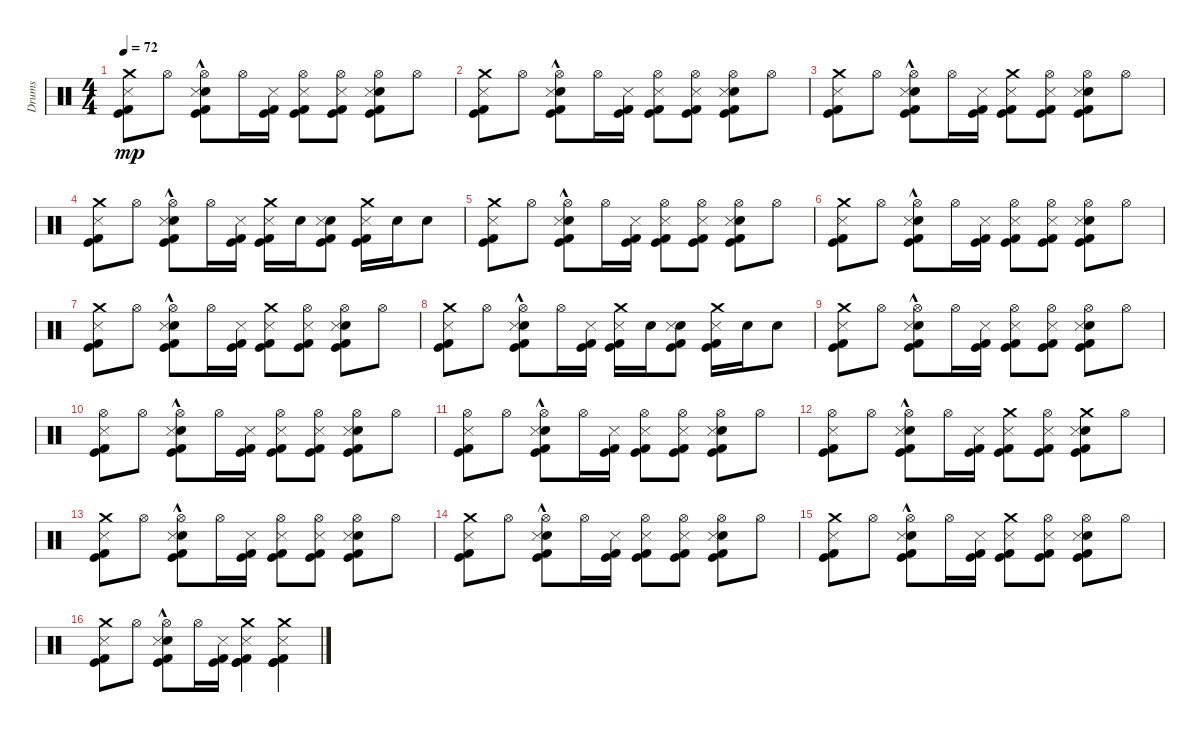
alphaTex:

\track ("Drums" "Drums") {instrument percussion}
\staff {score}
\articulation defaults
\ts (4 4)
\tempo 72
\clef neutral
\ks c
("Crash medium (hit)" "Metronome (hit)" "Kick (hit)" "Kick (hit) 2").8{dy mp} "Hi-Hat (open)".8 ("Snare (hit) 2" "Hi-Hat (open)" "Metronome (hit)"{hac} "Kick (hit)"{hac} "Kick (hit) 2"{hac}).8 "Hi-Hat (open)".16 ("Metronome (hit)" "Kick (hit)" "Kick (hit) 2").16 ("Hi-Hat (open)" "Metronome (hit)" "Kick (hit)" "Kick (hit) 2").8 ("Hi-Hat (open)" "Metronome (hit)" "Kick (hit)" "Kick (hit) 2").8 ("Snare (hit) 2" "Hi-Hat (open)" "Metronome (hit)" "Kick (hit)" "Kick (hit) 2").8 "Hi-Hat (open)".8 |
("Crash medium (hit)" "Metronome (hit)" "Kick (hit)" "Kick (hit) 2").8 "Hi-Hat (open)".8 ("Snare (hit) 2" "Hi-Hat (open)" "Metronome (hit)"{hac} "Kick (hit)"{hac} "Kick (hit) 2"{hac}).8 "Hi-Hat (open)".16 ("Metronome (hit)" "Kick (hit)" "Kick (hit) 2").16 ("Hi-Hat (open)" "Metronome (hit)" "Kick (hit)" "Kick (hit) 2").8 ("Hi-Hat (open)" "Metronome (hit)" "Kick (hit)" "Kick (hit) 2").8 ("Snare (hit) 2" "Hi-Hat (open)" "Metronome (hit)" "Kick (hit)" "Kick (hit) 2").8 "Hi-Hat (open)".8 |
("Crash medium (hit)" "Metronome (hit)" "Kick (hit)" "Kick (hit) 2").8 "Hi-Hat (open)".8 ("Snare (hit) 2" "Hi-Hat (open)" "Metronome (hit)"{hac} "Kick (hit)"{hac} "Kick (hit) 2"{hac}).8 "Hi-Hat (open)".16 ("Metronome (hit)" "Kick (hit)" "Kick (hit) 2").16 ("Crash medium (hit)" "Metronome (hit)" "Kick (hit)" "Kick (hit) 2").8 ("Hi-Hat (open)" "Metronome (hit)" "Kick (hit)" "Kick (hit) 2").8 ("Snare (hit) 2" "Hi-Hat (open)" "Metronome (hit)" "Kick (hit)" "Kick (hit) 2").8 "Hi-Hat (open)".8 |
("Crash medium (hit)" "Metronome (hit)" "Kick (hit)" "Kick (hit) 2").8 "Hi-Hat (open)".8 ("Snare (hit) 2" "Hi-Hat (open)" "Metronome (hit)"{hac} "Kick (hit)"{hac} "Kick (hit) 2"{hac}).8 "Hi-Hat (open)".16 ("Metronome (hit)" "Kick (hit)" "Kick (hit) 2").16 ("Crash medium (hit)" "Metronome (hit)" "Kick (hit)" "Kick (hit) 2").16 "Snare (hit) 2".16 ("Snare (hit) 2" "Metronome (hit)" "Kick (hit)" "Kick (hit) 2").8 ("Crash medium (hit)" "Metronome (hit)" "Kick (hit)" "Kick (hit) 2").16 "Snare (hit) 2".16 "Snare (hit) 2".8 |
("Crash medium (hit)" "Metronome (hit)" "Kick (hit)" "Kick (hit) 2").8 "Hi-Hat (open)".8 ("Snare (hit) 2" "Hi-Hat (open)" "Metronome (hit)"{hac} "Kick (hit)"{hac} "Kick (hit) 2"{hac}).8 "Hi-Hat (open)".16 ("Metronome (hit)" "Kick (hit)" "Kick (hit) 2").16 ("Hi-Hat (open)" "Metronome (hit)" "Kick (hit)" "Kick (hit) 2").8 ("Hi-Hat (open)" "Metronome (hit)" "Kick (hit)" "Kick (hit) 2").8 ("Snare (hit) 2" "Hi-Hat (open)" "Metronome (hit)" "Kick (hit)" "Kick (hit) 2").8 "Hi-Hat (open)".8 |
("Crash medium (hit)" "Metronome (hit)" "Kick (hit)" "Kick (hit) 2").8 "Hi-Hat (open)".8 ("Snare (hit) 2" "Hi-Hat (open)" "Metronome (hit)"{hac} "Kick (hit)"{hac} "Kick (hit) 2"{hac}).8 "Hi-Hat (open)".16 ("Metronome (hit)" "Kick (hit)" "Kick (hit) 2").16 ("Hi-Hat (open)" "Metronome (hit)" "Kick (hit)" "Kick (hit) 2").8 ("Hi-Hat (open)" "Metronome (hit)" "Kick (hit)" "Kick (hit) 2").8 ("Snare (hit) 2" "Hi-Hat (open)" "Metronome (hit)" "Kick (hit)" "Kick (hit) 2").8 "Hi-Hat (open)".8 |
("Crash medium (hit)" "Metronome (hit)" "Kick (hit)" "Kick (hit) 2").8 "Hi-Hat (open)".8 ("Snare (hit) 2" "Hi-Hat (open)" "Metronome (hit)"{hac} "Kick (hit)"{hac} "Kick (hit) 2"{hac}).8 "Hi-Hat (open)".16 ("Metronome (hit)" "Kick (hit)" "Kick (hit) 2").16 ("Crash medium (hit)" "Metronome (hit)" "Kick (hit)" "Kick (hit) 2").8 ("Hi-Hat (open)" "Metronome (hit)" "Kick (hit)" "Kick (hit) 2").8 ("Snare (hit) 2" "Hi-Hat (open)" "Metronome (hit)" "Kick (hit)" "Kick (hit) 2").8 "Hi-Hat (open)".8 |
("Crash medium (hit)" "Metronome (hit)" "Kick (hit)" "Kick (hit) 2").8 "Hi-Hat (open)".8 ("Snare (hit) 2" "Hi-Hat (open)" "Metronome (hit)"{hac} "Kick (hit)"{hac} "Kick (hit) 2"{hac}).8 "Hi-Hat (open)".16 ("Metronome (hit)" "Kick (hit)" "Kick (hit) 2").16 ("Crash medium (hit)" "Metronome (hit)" "Kick (hit)" "Kick (hit) 2").16 "Snare (hit) 2".16 ("Snare (hit) 2" "Metronome (hit)" "Kick (hit)" "Kick (hit) 2").8 ("Crash medium (hit)" "Metronome (hit)" "Kick (hit)" "Kick (hit) 2").16 "Snare (hit) 2".16 "Snare (hit) 2".8 |
("Crash medium (hit)" "Metronome (hit)" "Kick (hit)" "Kick (hit) 2").8 "Hi-Hat (open)".8 ("Snare (hit) 2" "Hi-Hat (open)" "Metronome (hit)"{hac} "Kick (hit)"{hac} "Kick (hit) 2"{hac}).8 "Hi-Hat (open)".16 ("Metronome (hit)" "Kick (hit)" "Kick (hit) 2").16 ("Hi-Hat (open)" "Metronome (hit)" "Kick (hit)" "Kick (hit) 2").8 ("Hi-Hat (open)" "Metronome (hit)" "Kick (hit)" "Kick (hit) 2").8 ("Snare (hit) 2" "Hi-Hat (open)" "Metronome (hit)" "Kick (hit)" "Kick (hit) 2").8 "Hi-Hat (open)".8 |
("Hi-Hat (open)" "Metronome (hit)" "Kick (hit)" "Kick (hit) 2").8 "Hi-Hat (open)".8 ("Snare (hit) 2" "Hi-Hat (open)" "Metronome (hit)"{hac} "Kick (hit)"{hac} "Kick (hit) 2"{hac}).8 "Hi-Hat (open)".16 ("Metronome (hit)" "Kick (hit)" "Kick (hit) 2").16 ("Hi-Hat (open)" "Metronome (hit)" "Kick (hit)" "Kick (hit) 2").8 ("Hi-Hat (open)" "Metronome (hit)" "Kick (hit)" "Kick (hit) 2").8 ("Snare (hit) 2" "Hi-Hat (open)" "Metronome (hit)" "Kick (hit)" "Kick (hit) 2").8 "Hi-Hat (open)".8 |
("Hi-Hat (open)" "Metronome (hit)" "Kick (hit)" "Kick (hit) 2").8 "Hi-Hat (open)".8 ("Snare (hit) 2" "Hi-Hat (open)" "Metronome (hit)"{hac} "Kick (hit)"{hac} "Kick (hit) 2"{hac}).8 "Hi-Hat (open)".16 ("Metronome (hit)" "Kick (hit)" "Kick (hit) 2").16 ("Hi-Hat (open)" "Metronome (hit)" "Kick (hit)" "Kick (hit) 2").8 ("Hi-Hat (open)" "Metronome (hit)" "Kick (hit)" "Kick (hit) 2").8 ("Snare (hit) 2" "Hi-Hat (open)" "Metronome (hit)" "Kick (hit)" "Kick (hit) 2").8 "Hi-Hat (open)".8 |
("Hi-Hat (open)" "Metronome (hit)" "Kick (hit)" "Kick (hit) 2").8 "Hi-Hat (open)".8 ("Snare (hit) 2" "Hi-Hat (open)" "Metronome (hit)"{hac} "Kick (hit)"{hac} "Kick (hit) 2"{hac}).8 "Hi-Hat (open)".16 ("Metronome (hit)" "Kick (hit)" "Kick (hit) 2").16 ("Crash medium (hit)" "Metronome (hit)" "Kick (hit)" "Kick (hit) 2").8 ("Hi-Hat (open)" "Metronome (hit)" "Kick (hit)" "Kick (hit) 2").8 ("Snare (hit) 2" "Crash medium (hit)" "Metronome (hit)" "Kick (hit)" "Kick (hit) 2").8 "Hi-Hat (open)".8 |
("Crash medium (hit)" "Metronome (hit)" "Kick (hit)" "Kick (hit) 2").8 "Hi-Hat (open)".8 ("Snare (hit) 2" "Hi-Hat (open)" "Metronome (hit)"{hac} "Kick (hit)"{hac} "Kick (hit) 2"{hac}).8 "Hi-Hat (open)".16 ("Metronome (hit)" "Kick (hit)" "Kick (hit) 2").16 ("Hi-Hat (open)" "Metronome (hit)" "Kick (hit)" "Kick (hit) 2").8 ("Hi-Hat (open)" "Metronome (hit)" "Kick (hit)" "Kick (hit) 2").8 ("Snare (hit) 2" "Hi-Hat (open)" "Metronome (hit)" "Kick (hit)" "Kick (hit) 2").8 "Hi-Hat (open)".8 |
("Crash medium (hit)" "Metronome (hit)" "Kick (hit)" "Kick (hit) 2").8 "Hi-Hat (open)".8 ("Snare (hit) 2" "Hi-Hat (open)" "Metronome (hit)"{hac} "Kick (hit)"{hac} "Kick (hit) 2"{hac}).8 "Hi-Hat (open)".16 ("Metronome (hit)" "Kick (hit)" "Kick (hit) 2").16 ("Hi-Hat (open)" "Metronome (hit)" "Kick (hit)" "Kick (hit) 2").8 ("Hi-Hat (open)" "Metronome (hit)" "Kick (hit)" "Kick (hit) 2").8 ("Snare (hit) 2" "Hi-Hat (open)" "Metronome (hit)" "Kick (hit)" "Kick (hit) 2").8 "Hi-Hat (open)".8 |
("Crash medium (hit)" "Metronome (hit)" "Kick (hit)" "Kick (hit) 2").8 "Hi-Hat (open)".8 ("Snare (hit) 2" "Hi-Hat (open)" "Metronome (hit)"{hac} "Kick (hit)"{hac} "Kick (hit) 2"{hac}).8 "Hi-Hat (open)".16 ("Metronome (hit)" "Kick (hit)" "Kick (hit) 2").16 ("Crash medium (hit)" "Metronome (hit)" "Kick (hit)" "Kick (hit) 2").8 ("Hi-Hat (open)" "Metronome (hit)" "Kick (hit)" "Kick (hit) 2").8 ("Snare (hit) 2" "Hi-Hat (open)" "Metronome (hit)" "Kick (hit)" "Kick (hit) 2").8 "Hi-Hat (open)".8 |
("Crash medium (hit)" "Metronome (hit)" "Kick (hit)" "Kick (hit) 2").8 "Hi-Hat (open)".8 ("Snare (hit) 2" "Hi-Hat (open)" "Metronome (hit)"{hac} "Kick (hit)"{hac} "Kick (hit) 2"{hac}).8 "Hi-Hat (open)".16 ("Metronome (hit)" "Kick (hit)" "Kick (hit) 2").16 ("Kick (hit)" "Crash medium (hit)" "Metronome (hit)" "Kick (hit)" "Kick (hit) 2").4 ("Kick (hit)" "Crash medium (hit)" "Metronome (hit)" "Kick (hit)" "Kick (hit) 2").4
